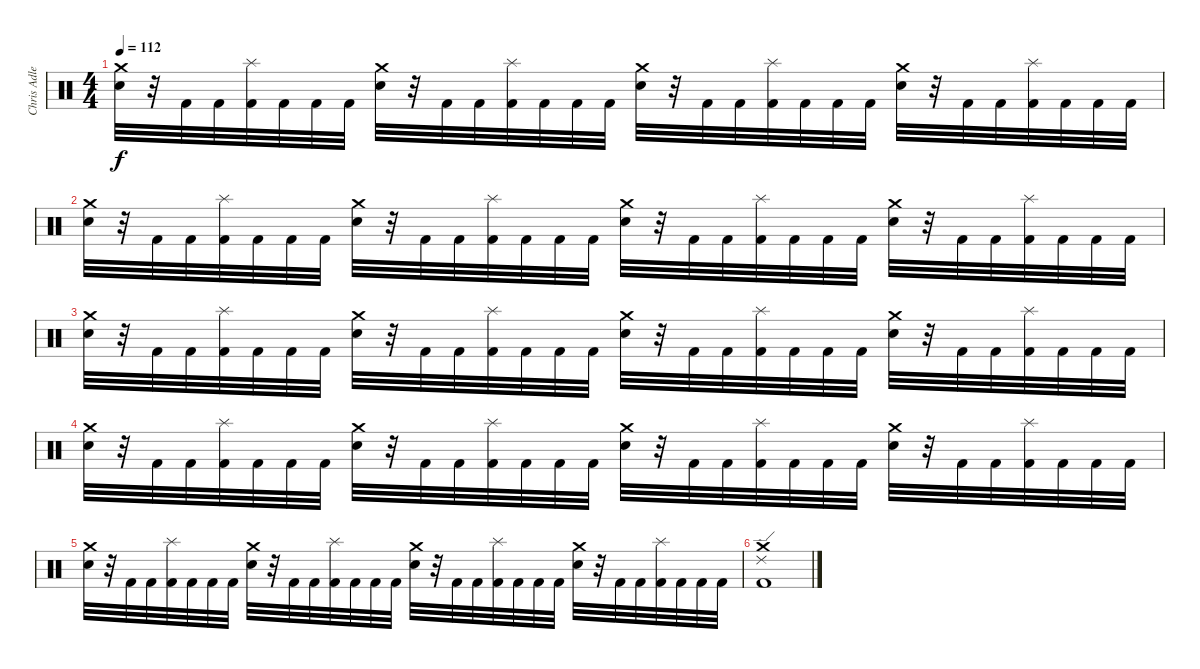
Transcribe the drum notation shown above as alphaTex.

\track ("Chris Adler" "Chris Adle") {instrument percussion}
\staff {score}
\articulation defaults
\ts (4 4)
\tempo 112
\clef neutral
\ks c
("Electric Snare (hit)" "Crash medium (hit)").32{dy f} r.32 "Kick (hit) 2".32 "Kick (hit) 2".32 ("Kick (hit) 2" "Splash (hit)").32 "Kick (hit) 2".32 "Kick (hit) 2".32 "Kick (hit) 2".32 ("Electric Snare (hit)" "Crash medium (hit)").32 r.32 "Kick (hit) 2".32 "Kick (hit) 2".32 ("Kick (hit) 2" "Splash (hit)").32 "Kick (hit) 2".32 "Kick (hit) 2".32 "Kick (hit) 2".32 ("Electric Snare (hit)" "Crash medium (hit)").32 r.32 "Kick (hit) 2".32 "Kick (hit) 2".32 ("Kick (hit) 2" "Splash (hit)").32 "Kick (hit) 2".32 "Kick (hit) 2".32 "Kick (hit) 2".32 ("Electric Snare (hit)" "Crash medium (hit)").32 r.32 "Kick (hit) 2".32 "Kick (hit) 2".32 ("Kick (hit) 2" "Splash (hit)").32 "Kick (hit) 2".32 "Kick (hit) 2".32 "Kick (hit) 2".32 |
("Electric Snare (hit)" "Crash medium (hit)").32 r.32 "Kick (hit) 2".32 "Kick (hit) 2".32 ("Kick (hit) 2" "Splash (hit)").32 "Kick (hit) 2".32 "Kick (hit) 2".32 "Kick (hit) 2".32 ("Electric Snare (hit)" "Crash medium (hit)").32 r.32 "Kick (hit) 2".32 "Kick (hit) 2".32 ("Kick (hit) 2" "Splash (hit)").32 "Kick (hit) 2".32 "Kick (hit) 2".32 "Kick (hit) 2".32 ("Electric Snare (hit)" "Crash medium (hit)").32 r.32 "Kick (hit) 2".32 "Kick (hit) 2".32 ("Kick (hit) 2" "Splash (hit)").32 "Kick (hit) 2".32 "Kick (hit) 2".32 "Kick (hit) 2".32 ("Electric Snare (hit)" "Crash medium (hit)").32 r.32 "Kick (hit) 2".32 "Kick (hit) 2".32 ("Kick (hit) 2" "Splash (hit)").32 "Kick (hit) 2".32 "Kick (hit) 2".32 "Kick (hit) 2".32 |
("Electric Snare (hit)" "Crash medium (hit)").32 r.32 "Kick (hit) 2".32 "Kick (hit) 2".32 ("Kick (hit) 2" "Splash (hit)").32 "Kick (hit) 2".32 "Kick (hit) 2".32 "Kick (hit) 2".32 ("Electric Snare (hit)" "Crash medium (hit)").32 r.32 "Kick (hit) 2".32 "Kick (hit) 2".32 ("Kick (hit) 2" "Splash (hit)").32 "Kick (hit) 2".32 "Kick (hit) 2".32 "Kick (hit) 2".32 ("Electric Snare (hit)" "Crash medium (hit)").32 r.32 "Kick (hit) 2".32 "Kick (hit) 2".32 ("Kick (hit) 2" "Splash (hit)").32 "Kick (hit) 2".32 "Kick (hit) 2".32 "Kick (hit) 2".32 ("Electric Snare (hit)" "Crash medium (hit)").32 r.32 "Kick (hit) 2".32 "Kick (hit) 2".32 ("Kick (hit) 2" "Splash (hit)").32 "Kick (hit) 2".32 "Kick (hit) 2".32 "Kick (hit) 2".32 |
("Electric Snare (hit)" "Crash medium (hit)").32 r.32 "Kick (hit) 2".32 "Kick (hit) 2".32 ("Kick (hit) 2" "Splash (hit)").32 "Kick (hit) 2".32 "Kick (hit) 2".32 "Kick (hit) 2".32 ("Electric Snare (hit)" "Crash medium (hit)").32 r.32 "Kick (hit) 2".32 "Kick (hit) 2".32 ("Kick (hit) 2" "Splash (hit)").32 "Kick (hit) 2".32 "Kick (hit) 2".32 "Kick (hit) 2".32 ("Electric Snare (hit)" "Crash medium (hit)").32 r.32 "Kick (hit) 2".32 "Kick (hit) 2".32 ("Kick (hit) 2" "Splash (hit)").32 "Kick (hit) 2".32 "Kick (hit) 2".32 "Kick (hit) 2".32 ("Electric Snare (hit)" "Crash medium (hit)").32 r.32 "Kick (hit) 2".32 "Kick (hit) 2".32 ("Kick (hit) 2" "Splash (hit)").32 "Kick (hit) 2".32 "Kick (hit) 2".32 "Kick (hit) 2".32 |
("Electric Snare (hit)" "Crash medium (hit)").32 r.32 "Kick (hit) 2".32 "Kick (hit) 2".32 ("Kick (hit) 2" "Splash (hit)").32 "Kick (hit) 2".32 "Kick (hit) 2".32 "Kick (hit) 2".32 ("Electric Snare (hit)" "Crash medium (hit)").32 r.32 "Kick (hit) 2".32 "Kick (hit) 2".32 ("Kick (hit) 2" "Splash (hit)").32 "Kick (hit) 2".32 "Kick (hit) 2".32 "Kick (hit) 2".32 ("Electric Snare (hit)" "Crash medium (hit)").32 r.32 "Kick (hit) 2".32 "Kick (hit) 2".32 ("Kick (hit) 2" "Splash (hit)").32 "Kick (hit) 2".32 "Kick (hit) 2".32 "Kick (hit) 2".32 ("Electric Snare (hit)" "Crash medium (hit)").32 r.32 "Kick (hit) 2".32 "Kick (hit) 2".32 ("Kick (hit) 2" "Splash (hit)").32 "Kick (hit) 2".32 "Kick (hit) 2".32 "Kick (hit) 2".32 |
("Kick (hit) 2" "Crash medium (hit)" "Ride (edge) 2").1
